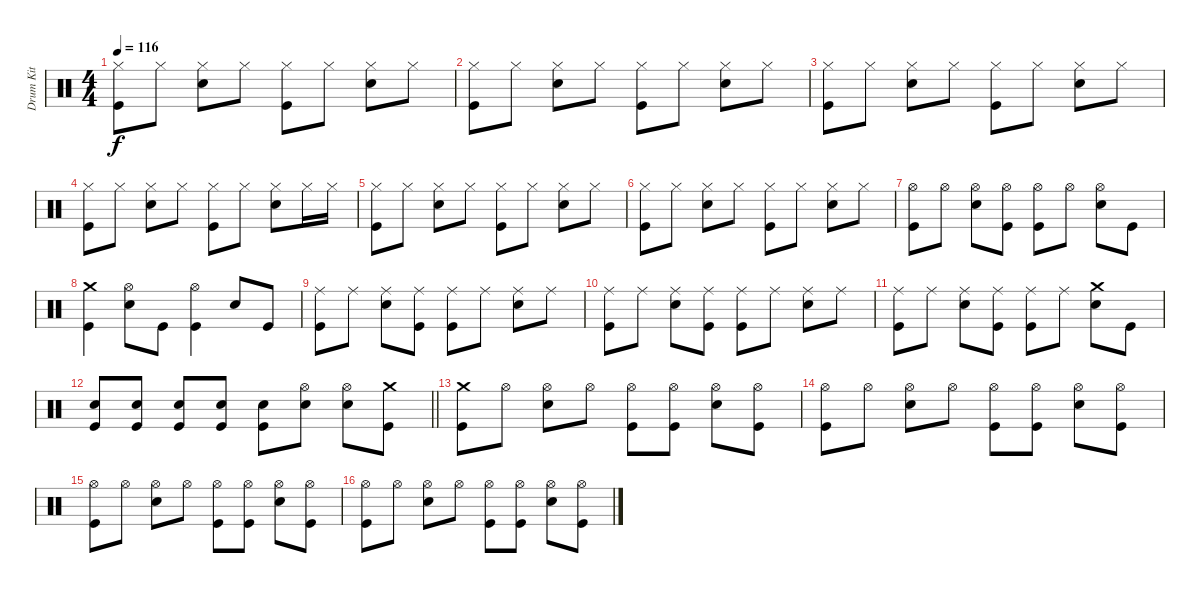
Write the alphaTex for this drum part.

\track ("Drum Kit" "Drum Kit") {instrument percussion}
\staff {score}
\articulation defaults
\ts (4 4)
\tempo 116
\clef neutral
\ks c
("Hi-Hat (closed)" "Kick (hit)").8{dy f} "Hi-Hat (closed)".8 ("Hi-Hat (closed)" "Snare (hit) 2").8 "Hi-Hat (closed)".8 ("Hi-Hat (closed)" "Kick (hit)").8 "Hi-Hat (closed)".8 ("Hi-Hat (closed)" "Snare (hit) 2").8 "Hi-Hat (closed)".8 |
("Hi-Hat (closed)" "Kick (hit)").8 "Hi-Hat (closed)".8 ("Hi-Hat (closed)" "Snare (hit) 2").8 "Hi-Hat (closed)".8 ("Hi-Hat (closed)" "Kick (hit)").8 "Hi-Hat (closed)".8 ("Hi-Hat (closed)" "Snare (hit) 2").8 "Hi-Hat (closed)".8 |
("Hi-Hat (closed)" "Kick (hit)").8 "Hi-Hat (closed)".8 ("Hi-Hat (closed)" "Snare (hit) 2").8 "Hi-Hat (closed)".8 ("Hi-Hat (closed)" "Kick (hit)").8 "Hi-Hat (closed)".8 ("Hi-Hat (closed)" "Snare (hit) 2").8 "Hi-Hat (closed)".8 |
("Hi-Hat (closed)" "Kick (hit)").8 "Hi-Hat (closed)".8 ("Hi-Hat (closed)" "Snare (hit) 2").8 "Hi-Hat (closed)".8 ("Hi-Hat (closed)" "Kick (hit)").8 "Hi-Hat (closed)".8 ("Hi-Hat (closed)" "Snare (hit) 2").8 "Hi-Hat (closed)".16 "Hi-Hat (closed)".16 |
("Hi-Hat (closed)" "Kick (hit)").8 "Hi-Hat (closed)".8 ("Hi-Hat (closed)" "Snare (hit) 2").8 "Hi-Hat (closed)".8 ("Hi-Hat (closed)" "Kick (hit)").8 "Hi-Hat (closed)".8 ("Hi-Hat (closed)" "Snare (hit) 2").8 "Hi-Hat (closed)".8 |
("Hi-Hat (closed)" "Kick (hit)").8 "Hi-Hat (closed)".8 ("Hi-Hat (closed)" "Snare (hit) 2").8 "Hi-Hat (closed)".8 ("Hi-Hat (closed)" "Kick (hit)").8 "Hi-Hat (closed)".8 ("Hi-Hat (closed)" "Snare (hit) 2").8 "Hi-Hat (closed)".8 |
("Hi-Hat (open)" "Kick (hit)").8 "Hi-Hat (open)".8 ("Hi-Hat (open)" "Snare (hit) 2").8 ("Hi-Hat (open)" "Kick (hit)").8 ("Hi-Hat (open)" "Kick (hit)").8 "Hi-Hat (open)".8 ("Hi-Hat (open)" "Snare (hit) 2").8 "Kick (hit)".8 |
("Crash medium (hit)" "Kick (hit)").4 ("Hi-Hat (open)" "Snare (hit) 2").8 "Kick (hit)".8 ("Hi-Hat (open)" "Kick (hit)").4 "Snare (hit) 2".8 "Kick (hit)".8 |
("Ride (middle)" "Kick (hit)").8 "Ride (middle)".8 ("Ride (middle)" "Snare (hit) 2").8 ("Ride (middle)" "Kick (hit)").8 ("Ride (middle)" "Kick (hit)").8 "Ride (middle)".8 ("Ride (middle)" "Snare (hit) 2").8 "Ride (middle)".8 |
("Ride (middle)" "Kick (hit)").8 "Ride (middle)".8 ("Ride (middle)" "Snare (hit) 2").8 ("Ride (middle)" "Kick (hit)").8 ("Ride (middle)" "Kick (hit)").8 "Ride (middle)".8 ("Ride (middle)" "Snare (hit) 2").8 "Ride (middle)".8 |
("Ride (middle)" "Kick (hit)").8 "Ride (middle)".8 ("Ride (middle)" "Snare (hit) 2").8 ("Ride (middle)" "Kick (hit)").8 ("Ride (middle)" "Kick (hit)").8 "Ride (middle)".8 ("Crash medium (hit)" "Snare (hit) 2").8 "Kick (hit)".8 |
\barLineRight lightlight
("Snare (hit) 2" "Kick (hit)").8 ("Snare (hit) 2" "Kick (hit)").8 ("Snare (hit) 2" "Kick (hit)").8 ("Snare (hit) 2" "Kick (hit)").8 ("Snare (hit) 2" "Kick (hit)").8 ("Hi-Hat (open)" "Snare (hit) 2").8 ("Hi-Hat (open)" "Snare (hit) 2").8 ("Crash medium (hit)" "Kick (hit)").8 |
("Crash medium (hit)" "Kick (hit)").8 "Hi-Hat (open)".8 ("Hi-Hat (open)" "Snare (hit) 2").8 "Hi-Hat (open)".8 ("Hi-Hat (open)" "Kick (hit)").8 ("Hi-Hat (open)" "Kick (hit)").8 ("Hi-Hat (open)" "Snare (hit) 2").8 ("Hi-Hat (open)" "Kick (hit)").8 |
("Hi-Hat (open)" "Kick (hit)").8 "Hi-Hat (open)".8 ("Hi-Hat (open)" "Snare (hit) 2").8 "Hi-Hat (open)".8 ("Hi-Hat (open)" "Kick (hit)").8 ("Hi-Hat (open)" "Kick (hit)").8 ("Hi-Hat (open)" "Snare (hit) 2").8 ("Hi-Hat (open)" "Kick (hit)").8 |
("Hi-Hat (open)" "Kick (hit)").8 "Hi-Hat (open)".8 ("Hi-Hat (open)" "Snare (hit) 2").8 "Hi-Hat (open)".8 ("Hi-Hat (open)" "Kick (hit)").8 ("Hi-Hat (open)" "Kick (hit)").8 ("Hi-Hat (open)" "Snare (hit) 2").8 ("Hi-Hat (open)" "Kick (hit)").8 |
("Hi-Hat (open)" "Kick (hit)").8 "Hi-Hat (open)".8 ("Hi-Hat (open)" "Snare (hit) 2").8 "Hi-Hat (open)".8 ("Hi-Hat (open)" "Kick (hit)").8 ("Hi-Hat (open)" "Kick (hit)").8 ("Hi-Hat (open)" "Snare (hit) 2").8 ("Hi-Hat (open)" "Kick (hit)").8
